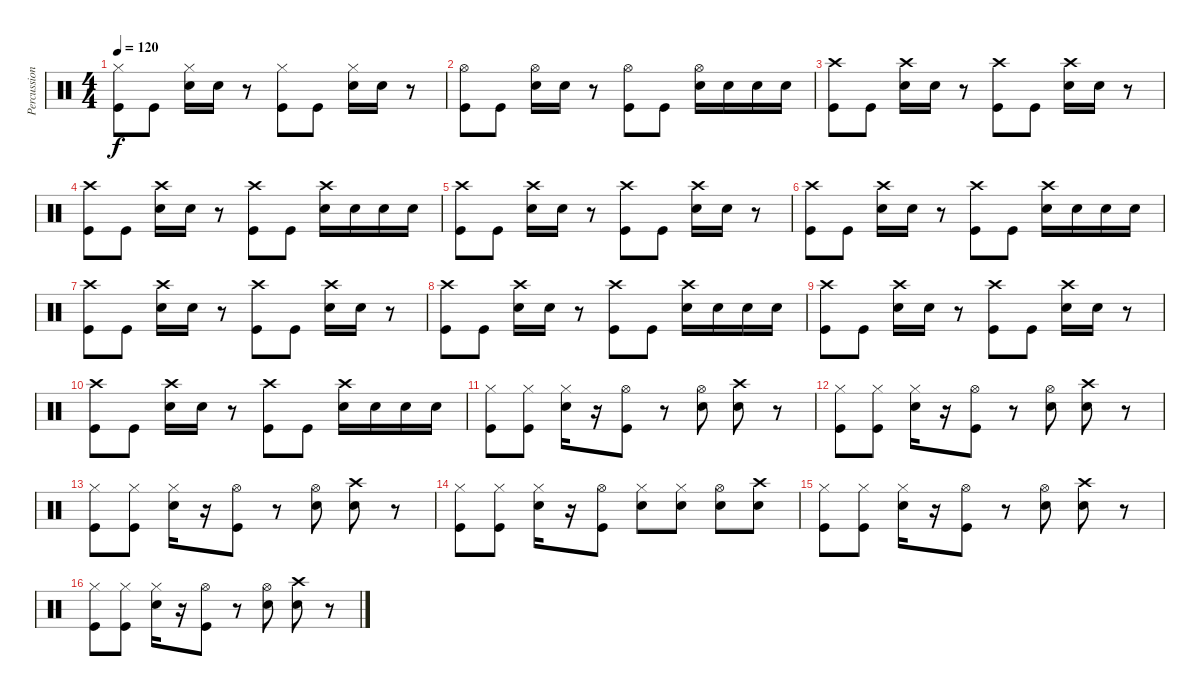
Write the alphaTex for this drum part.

\track ("Percussion" "Percussion") {instrument percussion}
\staff {score}
\articulation defaults
\ts (4 4)
\tempo 120
\clef neutral
\ks c
("Hi-Hat (closed)" "Kick (hit)").8{dy f} "Kick (hit)".8 ("Hi-Hat (closed)" "Snare (hit) 2").16 "Snare (hit) 2".16 r.8 ("Hi-Hat (closed)" "Kick (hit)").8 "Kick (hit)".8 ("Hi-Hat (closed)" "Snare (hit) 2").16 "Snare (hit) 2".16 r.8 |
("Hi-Hat (open)" "Kick (hit)").8 "Kick (hit)".8 ("Hi-Hat (open)" "Snare (hit) 2").16 "Snare (hit) 2".16 r.8 ("Hi-Hat (open)" "Kick (hit)").8 "Kick (hit)".8 ("Hi-Hat (open)" "Snare (hit) 2").16 "Snare (hit) 2".16 "Electric Snare (hit)".16 "Snare (hit) 2".16 |
("Crash high (hit)" "Kick (hit)").8 "Kick (hit)".8 ("Crash high (hit)" "Snare (hit) 2").16 "Snare (hit) 2".16 r.8 ("Crash high (hit)" "Kick (hit)").8 "Kick (hit)".8 ("Crash high (hit)" "Snare (hit) 2").16 "Snare (hit) 2".16 r.8 |
("Crash high (hit)" "Kick (hit)").8 "Kick (hit)".8 ("Crash high (hit)" "Snare (hit) 2").16 "Snare (hit) 2".16 r.8 ("Crash high (hit)" "Kick (hit)").8 "Kick (hit)".8 ("Crash high (hit)" "Snare (hit) 2").16 "Snare (hit) 2".16 "Electric Snare (hit)".16 "Snare (hit) 2".16 |
("Crash high (hit)" "Kick (hit)").8 "Kick (hit)".8 ("Crash high (hit)" "Snare (hit) 2").16 "Snare (hit) 2".16 r.8 ("Crash high (hit)" "Kick (hit)").8 "Kick (hit)".8 ("Crash high (hit)" "Snare (hit) 2").16 "Snare (hit) 2".16 r.8 |
("Crash high (hit)" "Kick (hit)").8 "Kick (hit)".8 ("Crash high (hit)" "Snare (hit) 2").16 "Snare (hit) 2".16 r.8 ("Crash high (hit)" "Kick (hit)").8 "Kick (hit)".8 ("Crash high (hit)" "Snare (hit) 2").16 "Snare (hit) 2".16 "Electric Snare (hit)".16 "Snare (hit) 2".16 |
("Crash high (hit)" "Kick (hit)").8 "Kick (hit)".8 ("Crash high (hit)" "Snare (hit) 2").16 "Snare (hit) 2".16 r.8 ("Crash high (hit)" "Kick (hit)").8 "Kick (hit)".8 ("Crash high (hit)" "Snare (hit) 2").16 "Snare (hit) 2".16 r.8 |
("Crash high (hit)" "Kick (hit)").8 "Kick (hit)".8 ("Crash high (hit)" "Snare (hit) 2").16 "Snare (hit) 2".16 r.8 ("Crash high (hit)" "Kick (hit)").8 "Kick (hit)".8 ("Crash high (hit)" "Snare (hit) 2").16 "Snare (hit) 2".16 "Electric Snare (hit)".16 "Snare (hit) 2".16 |
("Crash high (hit)" "Kick (hit)").8 "Kick (hit)".8 ("Crash high (hit)" "Snare (hit) 2").16 "Snare (hit) 2".16 r.8 ("Crash high (hit)" "Kick (hit)").8 "Kick (hit)".8 ("Crash high (hit)" "Snare (hit) 2").16 "Snare (hit) 2".16 r.8 |
("Crash high (hit)" "Kick (hit)").8 "Kick (hit)".8 ("Crash high (hit)" "Snare (hit) 2").16 "Snare (hit) 2".16 r.8 ("Crash high (hit)" "Kick (hit)").8 "Kick (hit)".8 ("Crash high (hit)" "Snare (hit) 2").16 "Snare (hit) 2".16 "Electric Snare (hit)".16 "Snare (hit) 2".16 |
("Hi-Hat (closed)" "Kick (hit)").8 ("Hi-Hat (closed)" "Kick (hit)").8 ("Hi-Hat (closed)" "Snare (hit) 2").16 r.16 ("Hi-Hat (open)" "Kick (hit)").8 r.8 ("Hi-Hat (open)" "Snare (hit) 2").8 ("Crash high (hit)" "Snare (hit) 2").8 r.8 |
("Hi-Hat (closed)" "Kick (hit)").8 ("Hi-Hat (closed)" "Kick (hit)").8 ("Hi-Hat (closed)" "Snare (hit) 2").16 r.16 ("Hi-Hat (open)" "Kick (hit)").8 r.8 ("Hi-Hat (open)" "Snare (hit) 2").8 ("Crash high (hit)" "Snare (hit) 2").8 r.8 |
("Hi-Hat (closed)" "Kick (hit)").8 ("Hi-Hat (closed)" "Kick (hit)").8 ("Hi-Hat (closed)" "Snare (hit) 2").16 r.16 ("Hi-Hat (open)" "Kick (hit)").8 r.8 ("Hi-Hat (open)" "Snare (hit) 2").8 ("Crash high (hit)" "Snare (hit) 2").8 r.8 |
("Hi-Hat (closed)" "Kick (hit)").8 ("Hi-Hat (closed)" "Kick (hit)").8 ("Hi-Hat (closed)" "Snare (hit) 2").16 r.16 ("Hi-Hat (open)" "Kick (hit)").8 ("Hi-Hat (closed)" "Electric Snare (hit)").8 ("Hi-Hat (closed)" "Electric Snare (hit)").8 ("Hi-Hat (open)" "Snare (hit) 2").8 ("Crash high (hit)" "Snare (hit) 2").8 |
("Hi-Hat (closed)" "Kick (hit)").8 ("Hi-Hat (closed)" "Kick (hit)").8 ("Hi-Hat (closed)" "Snare (hit) 2").16 r.16 ("Hi-Hat (open)" "Kick (hit)").8 r.8 ("Hi-Hat (open)" "Snare (hit) 2").8 ("Crash high (hit)" "Snare (hit) 2").8 r.8 |
("Hi-Hat (closed)" "Kick (hit)").8 ("Hi-Hat (closed)" "Kick (hit)").8 ("Hi-Hat (closed)" "Snare (hit) 2").16 r.16 ("Hi-Hat (open)" "Kick (hit)").8 r.8 ("Hi-Hat (open)" "Snare (hit) 2").8 ("Crash high (hit)" "Snare (hit) 2").8 r.8
